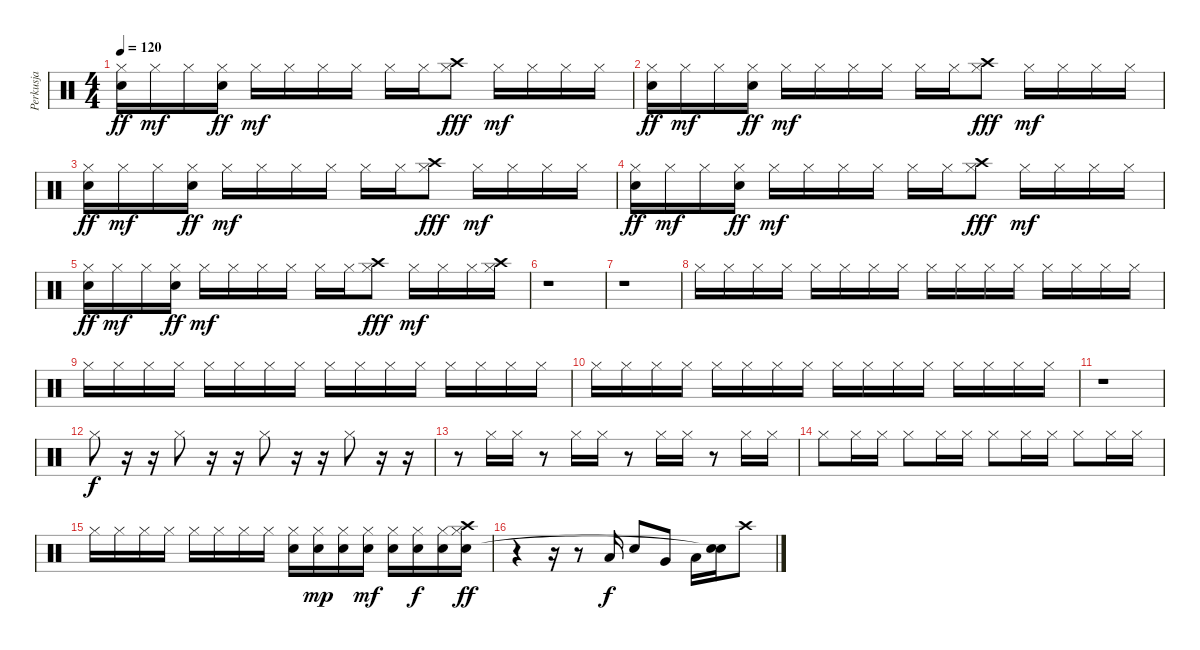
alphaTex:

\track ("Perkusja" "Perkusja") {instrument percussion}
\staff {score}
\articulation defaults
\ts (4 4)
\tempo 120
\clef neutral
\ks c
("Hi-Hat (closed)" "Snare (hit) 2").16{dy ff} "Hi-Hat (closed)".16{dy mf} "Hi-Hat (closed)".16 ("Hi-Hat (closed)" "Snare (hit) 2").16{dy ff} "Hi-Hat (closed)".16{dy mf} "Hi-Hat (closed)".16 "Hi-Hat (closed)".16 "Hi-Hat (closed)".16 "Hi-Hat (closed)".16 "Hi-Hat (closed)".16 ("Hi-Hat (closed)" "Crash high (hit)").8{dy fff} "Hi-Hat (closed)".16{dy mf} "Hi-Hat (closed)".16 "Hi-Hat (closed)".16 "Hi-Hat (closed)".16 |
("Hi-Hat (closed)" "Snare (hit) 2").16{dy ff} "Hi-Hat (closed)".16{dy mf} "Hi-Hat (closed)".16 ("Hi-Hat (closed)" "Snare (hit) 2").16{dy ff} "Hi-Hat (closed)".16{dy mf} "Hi-Hat (closed)".16 "Hi-Hat (closed)".16 "Hi-Hat (closed)".16 "Hi-Hat (closed)".16 "Hi-Hat (closed)".16 ("Hi-Hat (closed)" "Crash high (hit)").8{dy fff} "Hi-Hat (closed)".16{dy mf} "Hi-Hat (closed)".16 "Hi-Hat (closed)".16 "Hi-Hat (closed)".16 |
("Hi-Hat (closed)" "Snare (hit) 2").16{dy ff} "Hi-Hat (closed)".16{dy mf} "Hi-Hat (closed)".16 ("Hi-Hat (closed)" "Snare (hit) 2").16{dy ff} "Hi-Hat (closed)".16{dy mf} "Hi-Hat (closed)".16 "Hi-Hat (closed)".16 "Hi-Hat (closed)".16 "Hi-Hat (closed)".16 "Hi-Hat (closed)".16 ("Hi-Hat (closed)" "Crash high (hit)").8{dy fff} "Hi-Hat (closed)".16{dy mf} "Hi-Hat (closed)".16 "Hi-Hat (closed)".16 "Hi-Hat (closed)".16 |
("Hi-Hat (closed)" "Snare (hit) 2").16{dy ff} "Hi-Hat (closed)".16{dy mf} "Hi-Hat (closed)".16 ("Hi-Hat (closed)" "Snare (hit) 2").16{dy ff} "Hi-Hat (closed)".16{dy mf} "Hi-Hat (closed)".16 "Hi-Hat (closed)".16 "Hi-Hat (closed)".16 "Hi-Hat (closed)".16 "Hi-Hat (closed)".16 ("Hi-Hat (closed)" "Crash high (hit)").8{dy fff} "Hi-Hat (closed)".16{dy mf} "Hi-Hat (closed)".16 "Hi-Hat (closed)".16 "Hi-Hat (closed)".16 |
("Hi-Hat (closed)" "Snare (hit) 2").16{dy ff} "Hi-Hat (closed)".16{dy mf} "Hi-Hat (closed)".16 ("Hi-Hat (closed)" "Snare (hit) 2").16{dy ff} "Hi-Hat (closed)".16{dy mf} "Hi-Hat (closed)".16 "Hi-Hat (closed)".16 "Hi-Hat (closed)".16 "Hi-Hat (closed)".16 "Hi-Hat (closed)".16 ("Hi-Hat (closed)" "Crash high (hit)").8{dy fff} "Hi-Hat (closed)".16{dy mf} "Hi-Hat (closed)".16 "Hi-Hat (closed)".16 ("Hi-Hat (closed)" "Crash high (hit)").16 |
r.1 |
r.1 |
"Hi-Hat (closed)".16 "Hi-Hat (closed)".16 "Hi-Hat (closed)".16 "Hi-Hat (closed)".16 "Hi-Hat (closed)".16 "Hi-Hat (closed)".16 "Hi-Hat (closed)".16 "Hi-Hat (closed)".16 "Hi-Hat (closed)".16 "Hi-Hat (closed)".16 "Hi-Hat (closed)".16 "Hi-Hat (closed)".16 "Hi-Hat (closed)".16 "Hi-Hat (closed)".16 "Hi-Hat (closed)".16 "Hi-Hat (closed)".16 |
"Hi-Hat (closed)".16 "Hi-Hat (closed)".16 "Hi-Hat (closed)".16 "Hi-Hat (closed)".16 "Hi-Hat (closed)".16 "Hi-Hat (closed)".16 "Hi-Hat (closed)".16 "Hi-Hat (closed)".16 "Hi-Hat (closed)".16 "Hi-Hat (closed)".16 "Hi-Hat (closed)".16 "Hi-Hat (closed)".16 "Hi-Hat (closed)".16 "Hi-Hat (closed)".16 "Hi-Hat (closed)".16 "Hi-Hat (closed)".16 |
"Hi-Hat (closed)".16 "Hi-Hat (closed)".16 "Hi-Hat (closed)".16 "Hi-Hat (closed)".16 "Hi-Hat (closed)".16 "Hi-Hat (closed)".16 "Hi-Hat (closed)".16 "Hi-Hat (closed)".16 "Hi-Hat (closed)".16 "Hi-Hat (closed)".16 "Hi-Hat (closed)".16 "Hi-Hat (closed)".16 "Hi-Hat (closed)".16 "Hi-Hat (closed)".16 "Hi-Hat (closed)".16 "Hi-Hat (closed)".16 |
r.1 |
"Hi-Hat (closed)".8{dy f} r.16 r.16 "Hi-Hat (closed)".8 r.16 r.16 "Hi-Hat (closed)".8 r.16 r.16 "Hi-Hat (closed)".8 r.16 r.16 |
r.8 "Hi-Hat (closed)".16 "Hi-Hat (closed)".16 r.8 "Hi-Hat (closed)".16 "Hi-Hat (closed)".16 r.8 "Hi-Hat (closed)".16 "Hi-Hat (closed)".16 r.8 "Hi-Hat (closed)".16 "Hi-Hat (closed)".16 |
"Hi-Hat (closed)".8 "Hi-Hat (closed)".16 "Hi-Hat (closed)".16 "Hi-Hat (closed)".8 "Hi-Hat (closed)".16 "Hi-Hat (closed)".16 "Hi-Hat (closed)".8 "Hi-Hat (closed)".16 "Hi-Hat (closed)".16 "Hi-Hat (closed)".8 "Hi-Hat (closed)".16 "Hi-Hat (closed)".16 |
"Hi-Hat (closed)".16 "Hi-Hat (closed)".16 "Hi-Hat (closed)".16 "Hi-Hat (closed)".16 "Hi-Hat (closed)".16 "Hi-Hat (closed)".16 "Hi-Hat (closed)".16 "Hi-Hat (closed)".16 ("Hi-Hat (closed)" "Snare (hit) 2").16 ("Hi-Hat (closed)" "Snare (hit) 2").16{dy mp} ("Hi-Hat (closed)" "Snare (hit) 2").16 ("Hi-Hat (closed)" "Snare (hit) 2").16{dy mf} ("Hi-Hat (closed)" "Snare (hit) 2").16 ("Hi-Hat (closed)" "Snare (hit) 2").16{dy f} ("Hi-Hat (closed)" "Snare (hit) 2").16 ("Hi-Hat (closed)" "Snare (hit) 2" "Crash high (hit)").16{dy ff} |
r.4 r.16 r.8 "Low Tom (hit)".16{dy f} "Snare (hit) 2".8 "Very Low Tom (hit)".8 "Low Tom (hit)".16 ("Snare (hit) 2" "Snare (hit)"{t}).16 "Crash high (hit)".8
